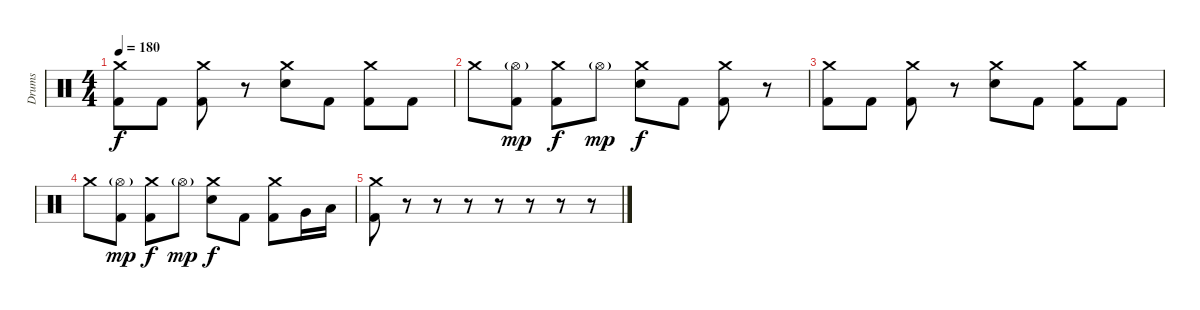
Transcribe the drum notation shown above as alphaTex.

\track ("Drums" "Drums") {instrument percussion}
\staff {score}
\articulation defaults
\ts (4 4)
\tempo 180
\clef neutral
\ks c
("Crash medium (hit)" "Kick (hit) 2").8{dy f} "Kick (hit) 2".8 ("Crash medium (hit)" "Kick (hit) 2").8 r.8 ("Crash medium (hit)" "Electric Snare (hit)").8 "Kick (hit) 2".8 ("Crash medium (hit)" "Kick (hit) 2").8 "Kick (hit) 2".8 |
"Crash medium (hit)".8 ("Hi-Hat (open)"{g} "Kick (hit) 2").8{dy mp} ("Crash medium (hit)" "Kick (hit) 2").8{dy f} "Hi-Hat (open)"{g}.8{dy mp} ("Crash medium (hit)" "Electric Snare (hit)").8{dy f} "Kick (hit) 2".8 ("Crash medium (hit)" "Kick (hit) 2").8 r.8 |
("Crash medium (hit)" "Kick (hit) 2").8 "Kick (hit) 2".8 ("Crash medium (hit)" "Kick (hit) 2").8 r.8 ("Crash medium (hit)" "Electric Snare (hit)").8 "Kick (hit) 2".8 ("Crash medium (hit)" "Kick (hit) 2").8 "Kick (hit) 2".8 |
"Crash medium (hit)".8 ("Hi-Hat (open)"{g} "Kick (hit) 2").8{dy mp} ("Crash medium (hit)" "Kick (hit) 2").8{dy f} "Hi-Hat (open)"{g}.8{dy mp} ("Crash medium (hit)" "Electric Snare (hit)").8{dy f} "Kick (hit) 2".8 ("Crash medium (hit)" "Kick (hit) 2").8 "Very Low Tom (hit)".16 "Low Tom (hit)".16 |
("Crash medium (hit)" "Kick (hit) 2").8 r.8 r.8 r.8 r.8 r.8 r.8 r.8
